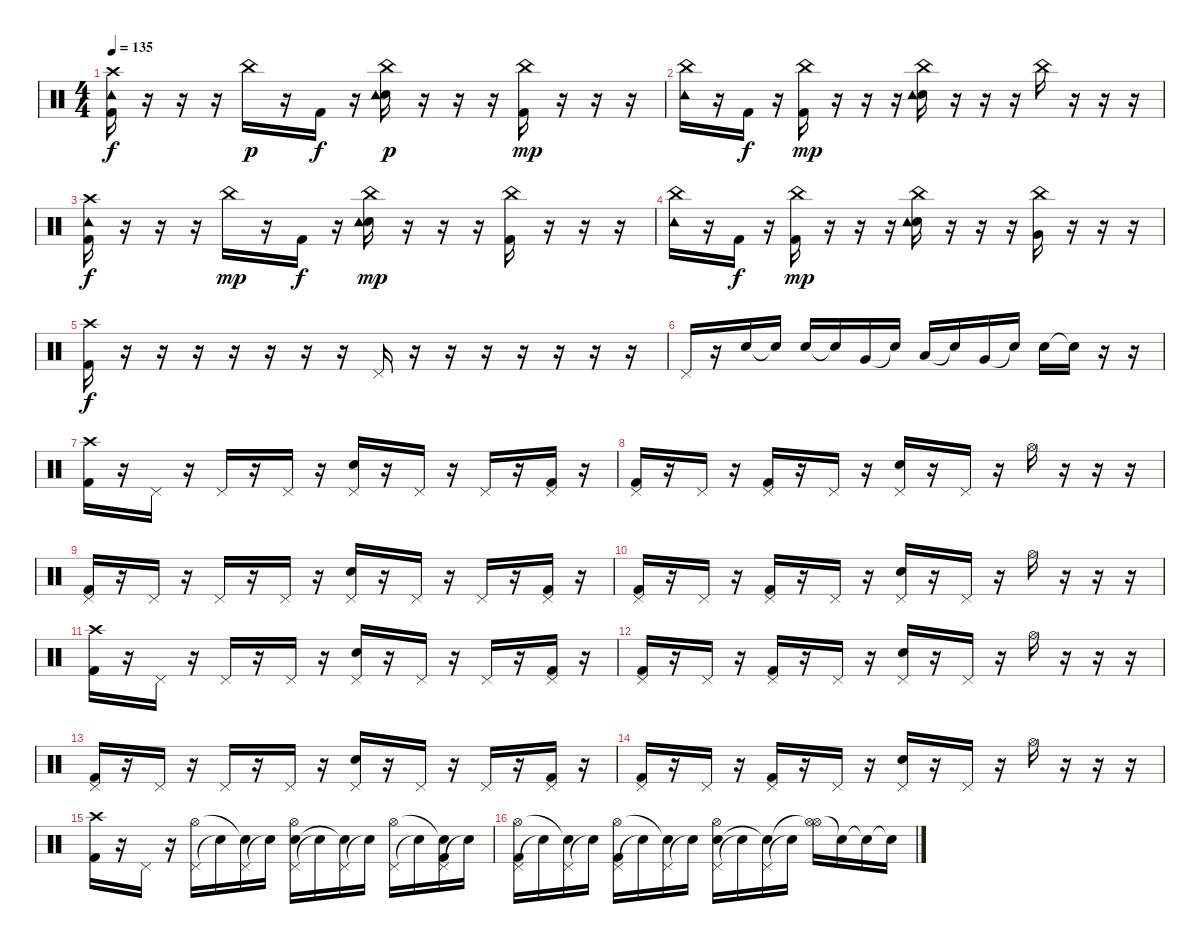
\track (" " " ") {instrument percussion}
\staff {score}
\articulation defaults
\ts (4 4)
\tempo 135
\clef neutral
\ks c
("Crash high (hit)" "Tambourine (hit)" "Kick (hit) 2").16{dy f} r.16 r.16 r.16 "China (hit)".16{dy p} r.16 "Kick (hit) 2".16{dy f} r.16 ("China (hit)" "Electric Snare (hit)" "Tambourine (hit)").16{dy p} r.16 r.16 r.16 ("China (hit)" "Kick (hit) 2").16{dy mp} r.16 r.16 r.16 |
("China (hit)" "Tambourine (hit)").16 r.16 "Kick (hit) 2".16{dy f} r.16 ("China (hit)" "Kick (hit) 2").16{dy mp} r.16 r.16 r.16 ("China (hit)" "Electric Snare (hit)" "Tambourine (hit)").16 r.16 r.16 r.16 "China (hit)".16 r.16 r.16 r.16 |
("Crash high (hit)" "Tambourine (hit)" "Kick (hit) 2").16{dy f} r.16 r.16 r.16 "China (hit)".16{dy mp} r.16 "Kick (hit) 2".16{dy f} r.16 ("China (hit)" "Electric Snare (hit)" "Tambourine (hit)").16{dy mp} r.16 r.16 r.16 ("China (hit)" "Kick (hit) 2").16 r.16 r.16 r.16 |
("China (hit)" "Tambourine (hit)").16 r.16 "Kick (hit) 2".16{dy f} r.16 ("China (hit)" "Kick (hit) 2").16{dy mp} r.16 r.16 r.16 ("China (hit)" "Electric Snare (hit)" "Tambourine (hit)").16 r.16 r.16 r.16 ("China (hit)" "Very Low Tom (hit)").16 r.16 r.16 r.16 |
("Crash high (hit)" "Kick (hit) 2").16{dy f} r.16 r.16 r.16 r.16 r.16 r.16 r.16 "Pedal Hi-Hat (hit)".16 r.16 r.16 r.16 r.16 r.16 r.16 r.16 |
"Pedal Hi-Hat (hit)".16 r.16 "Electric Snare (hit)".16 "Snare (hit)"{t}.16 "Electric Snare (hit)".16 "Snare (hit)"{t}.16 "Very Low Tom (hit)".16 "Snare (hit)"{t}.16 "Low Floor Tom (hit)".16 "Snare (hit)"{t}.16 "Very Low Tom (hit)".16 "Snare (hit)"{t}.16 "Electric Snare (hit)".16 "Snare (hit)"{t}.16 r.16 r.16 |
("Crash high (hit)" "Kick (hit) 2").16 r.16 "Pedal Hi-Hat (hit)".16 r.16 "Pedal Hi-Hat (hit)".16 r.16 "Pedal Hi-Hat (hit)".16 r.16 ("Pedal Hi-Hat (hit)" "Electric Snare (hit)").16 r.16 "Pedal Hi-Hat (hit)".16 r.16 "Pedal Hi-Hat (hit)".16 r.16 ("Pedal Hi-Hat (hit)" "Kick (hit) 2").16 r.16 |
("Pedal Hi-Hat (hit)" "Kick (hit) 2").16 r.16 "Pedal Hi-Hat (hit)".16 r.16 ("Pedal Hi-Hat (hit)" "Kick (hit) 2").16 r.16 "Pedal Hi-Hat (hit)".16 r.16 ("Pedal Hi-Hat (hit)" "Electric Snare (hit)").16 r.16 "Pedal Hi-Hat (hit)".16 r.16 "Hi-Hat (open)".16 r.16 r.16 r.16 |
("Pedal Hi-Hat (hit)" "Kick (hit) 2").16 r.16 "Pedal Hi-Hat (hit)".16 r.16 "Pedal Hi-Hat (hit)".16 r.16 "Pedal Hi-Hat (hit)".16 r.16 ("Pedal Hi-Hat (hit)" "Electric Snare (hit)").16 r.16 "Pedal Hi-Hat (hit)".16 r.16 "Pedal Hi-Hat (hit)".16 r.16 ("Pedal Hi-Hat (hit)" "Kick (hit) 2").16 r.16 |
("Pedal Hi-Hat (hit)" "Kick (hit) 2").16 r.16 "Pedal Hi-Hat (hit)".16 r.16 ("Pedal Hi-Hat (hit)" "Kick (hit) 2").16 r.16 "Pedal Hi-Hat (hit)".16 r.16 ("Pedal Hi-Hat (hit)" "Electric Snare (hit)").16 r.16 "Pedal Hi-Hat (hit)".16 r.16 "Hi-Hat (open)".16 r.16 r.16 r.16 |
("Crash high (hit)" "Kick (hit) 2").16 r.16 "Pedal Hi-Hat (hit)".16 r.16 "Pedal Hi-Hat (hit)".16 r.16 "Pedal Hi-Hat (hit)".16 r.16 ("Pedal Hi-Hat (hit)" "Electric Snare (hit)").16 r.16 "Pedal Hi-Hat (hit)".16 r.16 "Pedal Hi-Hat (hit)".16 r.16 ("Pedal Hi-Hat (hit)" "Kick (hit) 2").16 r.16 |
("Pedal Hi-Hat (hit)" "Kick (hit) 2").16 r.16 "Pedal Hi-Hat (hit)".16 r.16 ("Pedal Hi-Hat (hit)" "Kick (hit) 2").16 r.16 "Pedal Hi-Hat (hit)".16 r.16 ("Pedal Hi-Hat (hit)" "Electric Snare (hit)").16 r.16 "Pedal Hi-Hat (hit)".16 r.16 "Hi-Hat (open)".16 r.16 r.16 r.16 |
("Pedal Hi-Hat (hit)" "Kick (hit) 2").16 r.16 "Pedal Hi-Hat (hit)".16 r.16 "Pedal Hi-Hat (hit)".16 r.16 "Pedal Hi-Hat (hit)".16 r.16 ("Pedal Hi-Hat (hit)" "Electric Snare (hit)").16 r.16 "Pedal Hi-Hat (hit)".16 r.16 "Pedal Hi-Hat (hit)".16 r.16 ("Pedal Hi-Hat (hit)" "Kick (hit) 2").16 r.16 |
("Pedal Hi-Hat (hit)" "Kick (hit) 2").16 r.16 "Pedal Hi-Hat (hit)".16 r.16 ("Pedal Hi-Hat (hit)" "Kick (hit) 2").16 r.16 "Pedal Hi-Hat (hit)".16 r.16 ("Pedal Hi-Hat (hit)" "Electric Snare (hit)").16 r.16 "Pedal Hi-Hat (hit)".16 r.16 "Hi-Hat (open)".16 r.16 r.16 r.16 |
("Crash high (hit)" "Kick (hit) 2").16 r.16 "Pedal Hi-Hat (hit)".16 r.16 ("Pedal Hi-Hat (hit)" "Hi-Hat (open)").16 "Snare (hit)"{t}.16 ("Pedal Hi-Hat (hit)" "Snare (hit)"{t}).16 "Snare (hit)"{t}.16 ("Pedal Hi-Hat (hit)" "Electric Snare (hit)" "Hi-Hat (open)").16 "Snare (hit)"{t}.16 ("Pedal Hi-Hat (hit)" "Snare (hit)"{t}).16 "Snare (hit)"{t}.16 ("Pedal Hi-Hat (hit)" "Hi-Hat (open)").16 "Snare (hit)"{t}.16 ("Pedal Hi-Hat (hit)" "Snare (hit)"{t} "Kick (hit) 2").16 "Snare (hit)"{t}.16 |
("Pedal Hi-Hat (hit)" "Hi-Hat (open)" "Kick (hit) 2").16 "Snare (hit)"{t}.16 ("Pedal Hi-Hat (hit)" "Snare (hit)"{t}).16 "Snare (hit)"{t}.16 ("Pedal Hi-Hat (hit)" "Hi-Hat (open)" "Kick (hit) 2").16 "Snare (hit)"{t}.16 ("Pedal Hi-Hat (hit)" "Snare (hit)"{t}).16 "Snare (hit)"{t}.16 ("Pedal Hi-Hat (hit)" "Electric Snare (hit)" "Hi-Hat (open)").16 "Snare (hit)"{t}.16 ("Pedal Hi-Hat (hit)" "Snare (hit)"{t}).16 "Snare (hit)"{t}.16 ("Hi-Hat (open)" "Hi-Hat (open)"{t}).16 "Snare (hit)"{t}.16 "Snare (hit)"{t}.16 "Snare (hit)"{t}.16
